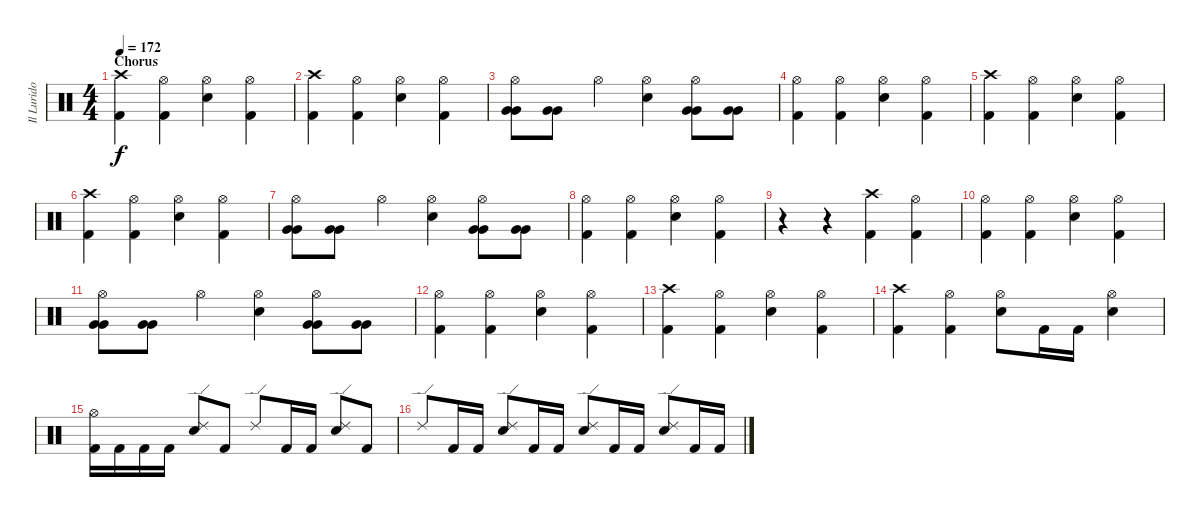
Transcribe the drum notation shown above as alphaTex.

\track ("Il Lurido Cavernicolo (Drums)" "Il Lurido ") {instrument percussion}
\staff {score}
\articulation defaults
\ts (4 4)
\section ("" "Chorus")
\tempo 172
\clef neutral
\ks c
("Crash high (hit)" "Kick (hit) 2").4{dy f} ("Hi-Hat (open)" "Kick (hit) 2").4 ("Hi-Hat (open)" "Electric Snare (hit)").4 ("Hi-Hat (open)" "Kick (hit) 2").4 |
("Crash high (hit)" "Kick (hit) 2").4 ("Hi-Hat (open)" "Kick (hit) 2").4 ("Hi-Hat (open)" "Electric Snare (hit)").4 ("Hi-Hat (open)" "Kick (hit) 2").4 |
("Hi-Hat (open)" "Very Low Tom (hit)" "Very Low Tom (hit)").8 ("Very Low Tom (hit)" "Very Low Tom (hit)").8 "Hi-Hat (open)".4 ("Hi-Hat (open)" "Electric Snare (hit)").4 ("Hi-Hat (open)" "Very Low Tom (hit)" "Very Low Tom (hit)").8 ("Very Low Tom (hit)" "Very Low Tom (hit)").8 |
("Hi-Hat (open)" "Kick (hit) 2").4 ("Hi-Hat (open)" "Kick (hit) 2").4 ("Hi-Hat (open)" "Electric Snare (hit)").4 ("Hi-Hat (open)" "Kick (hit) 2").4 |
("Crash high (hit)" "Kick (hit) 2").4 ("Hi-Hat (open)" "Kick (hit) 2").4 ("Hi-Hat (open)" "Electric Snare (hit)").4 ("Hi-Hat (open)" "Kick (hit) 2").4 |
("Crash high (hit)" "Kick (hit) 2").4 ("Hi-Hat (open)" "Kick (hit) 2").4 ("Hi-Hat (open)" "Electric Snare (hit)").4 ("Hi-Hat (open)" "Kick (hit) 2").4 |
("Hi-Hat (open)" "Very Low Tom (hit)" "Very Low Tom (hit)").8 ("Very Low Tom (hit)" "Very Low Tom (hit)").8 "Hi-Hat (open)".4 ("Hi-Hat (open)" "Electric Snare (hit)").4 ("Hi-Hat (open)" "Very Low Tom (hit)" "Very Low Tom (hit)").8 ("Very Low Tom (hit)" "Very Low Tom (hit)").8 |
("Hi-Hat (open)" "Kick (hit) 2").4 ("Hi-Hat (open)" "Kick (hit) 2").4 ("Hi-Hat (open)" "Electric Snare (hit)").4 ("Hi-Hat (open)" "Kick (hit) 2").4 |
r.4 r.4 ("Crash high (hit)" "Kick (hit) 2").4 ("Hi-Hat (open)" "Kick (hit) 2").4 |
("Hi-Hat (open)" "Kick (hit) 2").4 ("Hi-Hat (open)" "Kick (hit) 2").4 ("Hi-Hat (open)" "Electric Snare (hit)").4 ("Hi-Hat (open)" "Kick (hit) 2").4 |
("Hi-Hat (open)" "Very Low Tom (hit)" "Very Low Tom (hit)").8 ("Very Low Tom (hit)" "Very Low Tom (hit)").8 "Hi-Hat (open)".4 ("Hi-Hat (open)" "Electric Snare (hit)").4 ("Hi-Hat (open)" "Very Low Tom (hit)" "Very Low Tom (hit)").8 ("Very Low Tom (hit)" "Very Low Tom (hit)").8 |
("Hi-Hat (open)" "Kick (hit) 2").4 ("Hi-Hat (open)" "Kick (hit) 2").4 ("Hi-Hat (open)" "Electric Snare (hit)").4 ("Hi-Hat (open)" "Kick (hit) 2").4 |
("Crash high (hit)" "Kick (hit) 2").4 ("Hi-Hat (open)" "Kick (hit) 2").4 ("Hi-Hat (open)" "Electric Snare (hit)").4 ("Hi-Hat (open)" "Kick (hit) 2").4 |
("Crash high (hit)" "Kick (hit) 2").4 ("Hi-Hat (open)" "Kick (hit) 2").4 ("Hi-Hat (open)" "Electric Snare (hit)").8 "Kick (hit) 2".16 "Kick (hit) 2".16 ("Hi-Hat (open)" "Electric Snare (hit)").4 |
("Hi-Hat (open)" "Kick (hit) 2").16 "Kick (hit) 2".16 "Kick (hit) 2".16 "Kick (hit) 2".16 ("Ride (edge) 2" "Electric Snare (hit)").8 "Kick (hit) 2".8 "Ride (edge) 2".8 "Kick (hit) 2".16 "Kick (hit) 2".16 ("Ride (edge) 2" "Electric Snare (hit)").8 "Kick (hit) 2".8 |
"Ride (edge) 2".8 "Kick (hit) 2".16 "Kick (hit) 2".16 ("Ride (edge) 2" "Electric Snare (hit)").8 "Kick (hit) 2".16 "Kick (hit) 2".16 ("Ride (edge) 2" "Electric Snare (hit)").8 "Kick (hit) 2".16 "Kick (hit) 2".16 ("Ride (edge) 2" "Electric Snare (hit)").8 "Kick (hit) 2".16 "Kick (hit) 2".16
